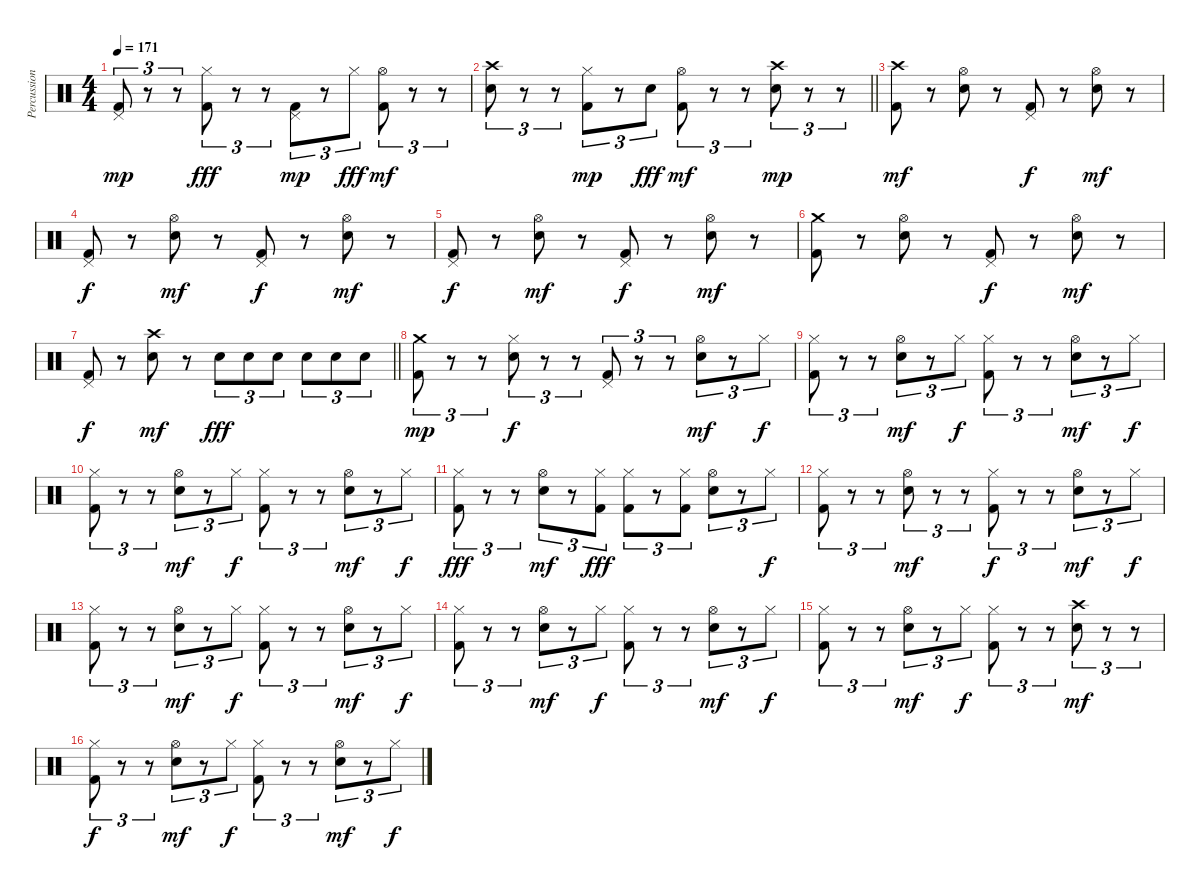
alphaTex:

\track ("Percussions" "Percussion") {instrument percussion}
\staff {score}
\articulation defaults
\ts (4 4)
\tempo 171
\clef neutral
\ks c
("Kick (hit) 2" "Pedal Hi-Hat (hit)").8{tu (3 2) dy mp} r.8{tu (3 2)} r.8{tu (3 2)} ("Kick (hit) 2" "Hi-Hat (closed)").8{tu (3 2) dy fff} r.8{tu (3 2)} r.8{tu (3 2)} ("Kick (hit) 2" "Pedal Hi-Hat (hit)").8{tu (3 2) dy mp} r.8{tu (3 2)} "Hi-Hat (closed)".8{tu (3 2) dy fff} ("Kick (hit) 2" "Hi-Hat (open)").8{tu (3 2) dy mf} r.8{tu (3 2)} r.8{tu (3 2)} |
\barLineRight lightlight
("Electric Snare (hit)" "Crash high (hit)").8{tu (3 2)} r.8{tu (3 2)} r.8{tu (3 2)} ("Kick (hit) 2" "Hi-Hat (closed)").8{tu (3 2) dy mp} r.8{tu (3 2)} "Electric Snare (hit)".8{tu (3 2) dy fff} ("Kick (hit) 2" "Hi-Hat (open)").8{tu (3 2) dy mf} r.8{tu (3 2)} r.8{tu (3 2)} ("Electric Snare (hit)" "Crash high (hit)").8{tu (3 2) dy mp} r.8{tu (3 2)} r.8{tu (3 2)} |
\section ("" "")
("Kick (hit) 2" "Crash high (hit)").8{dy mf} r.8 ("Electric Snare (hit)" "Hi-Hat (open)").8 r.8 ("Kick (hit) 2" "Pedal Hi-Hat (hit)").8{dy f} r.8 ("Electric Snare (hit)" "Hi-Hat (open)").8{dy mf} r.8 |
("Kick (hit) 2" "Pedal Hi-Hat (hit)").8{dy f} r.8 ("Electric Snare (hit)" "Hi-Hat (open)").8{dy mf} r.8 ("Kick (hit) 2" "Pedal Hi-Hat (hit)").8{dy f} r.8 ("Electric Snare (hit)" "Hi-Hat (open)").8{dy mf} r.8 |
("Kick (hit) 2" "Pedal Hi-Hat (hit)").8{dy f} r.8 ("Electric Snare (hit)" "Hi-Hat (open)").8{dy mf} r.8 ("Kick (hit) 2" "Pedal Hi-Hat (hit)").8{dy f} r.8 ("Electric Snare (hit)" "Hi-Hat (open)").8{dy mf} r.8 |
("Kick (hit) 2" "Crash medium (hit)").8 r.8 ("Electric Snare (hit)" "Hi-Hat (open)").8 r.8 ("Kick (hit) 2" "Pedal Hi-Hat (hit)").8{dy f} r.8 ("Electric Snare (hit)" "Hi-Hat (open)").8{dy mf} r.8 |
\barLineRight lightlight
("Kick (hit) 2" "Pedal Hi-Hat (hit)").8{dy f} r.8 ("Electric Snare (hit)" "Crash high (hit)").8{dy mf} r.8 "Electric Snare (hit)".8{tu (3 2) dy fff} "Electric Snare (hit)".8{tu (3 2)} "Electric Snare (hit)".8{tu (3 2)} "Electric Snare (hit)".8{tu (3 2)} "Electric Snare (hit)".8{tu (3 2)} "Electric Snare (hit)".8{tu (3 2)} |
\section ("" "")
("Kick (hit) 2" "Crash medium (hit)").8{tu (3 2) dy mp} r.8{tu (3 2)} r.8{tu (3 2)} ("Electric Snare (hit)" "Hi-Hat (closed)").8{tu (3 2) dy f} r.8{tu (3 2)} r.8{tu (3 2)} ("Kick (hit) 2" "Pedal Hi-Hat (hit)").8{tu (3 2)} r.8{tu (3 2)} r.8{tu (3 2)} ("Electric Snare (hit)" "Hi-Hat (open)").8{tu (3 2) dy mf} r.8{tu (3 2)} "Hi-Hat (closed)".8{tu (3 2) dy f} |
("Kick (hit) 2" "Hi-Hat (closed)").8{tu (3 2)} r.8{tu (3 2)} r.8{tu (3 2)} ("Electric Snare (hit)" "Hi-Hat (open)").8{tu (3 2) dy mf} r.8{tu (3 2)} "Hi-Hat (closed)".8{tu (3 2) dy f} ("Kick (hit) 2" "Hi-Hat (closed)").8{tu (3 2)} r.8{tu (3 2)} r.8{tu (3 2)} ("Electric Snare (hit)" "Hi-Hat (open)").8{tu (3 2) dy mf} r.8{tu (3 2)} "Hi-Hat (closed)".8{tu (3 2) dy f} |
("Kick (hit) 2" "Hi-Hat (closed)").8{tu (3 2)} r.8{tu (3 2)} r.8{tu (3 2)} ("Electric Snare (hit)" "Hi-Hat (open)").8{tu (3 2) dy mf} r.8{tu (3 2)} "Hi-Hat (closed)".8{tu (3 2) dy f} ("Kick (hit) 2" "Hi-Hat (closed)").8{tu (3 2)} r.8{tu (3 2)} r.8{tu (3 2)} ("Electric Snare (hit)" "Hi-Hat (open)").8{tu (3 2) dy mf} r.8{tu (3 2)} "Hi-Hat (closed)".8{tu (3 2) dy f} |
("Kick (hit) 2" "Hi-Hat (closed)").8{tu (3 2) dy fff} r.8{tu (3 2)} r.8{tu (3 2)} ("Electric Snare (hit)" "Hi-Hat (open)").8{tu (3 2) dy mf} r.8{tu (3 2)} ("Kick (hit) 2" "Hi-Hat (closed)").8{tu (3 2) dy fff} ("Kick (hit) 2" "Hi-Hat (closed)").8{tu (3 2)} r.8{tu (3 2)} ("Kick (hit) 2" "Hi-Hat (closed)").8{tu (3 2)} ("Electric Snare (hit)" "Hi-Hat (open)").8{tu (3 2)} r.8{tu (3 2)} "Hi-Hat (closed)".8{tu (3 2) dy f} |
("Kick (hit) 2" "Hi-Hat (closed)").8{tu (3 2)} r.8{tu (3 2)} r.8{tu (3 2)} ("Electric Snare (hit)" "Hi-Hat (open)").8{tu (3 2) dy mf} r.8{tu (3 2)} r.8{tu (3 2)} ("Kick (hit) 2" "Hi-Hat (closed)").8{tu (3 2) dy f} r.8{tu (3 2)} r.8{tu (3 2)} ("Electric Snare (hit)" "Hi-Hat (open)").8{tu (3 2) dy mf} r.8{tu (3 2)} "Hi-Hat (closed)".8{tu (3 2) dy f} |
("Kick (hit) 2" "Hi-Hat (closed)").8{tu (3 2)} r.8{tu (3 2)} r.8{tu (3 2)} ("Electric Snare (hit)" "Hi-Hat (open)").8{tu (3 2) dy mf} r.8{tu (3 2)} "Hi-Hat (closed)".8{tu (3 2) dy f} ("Kick (hit) 2" "Hi-Hat (closed)").8{tu (3 2)} r.8{tu (3 2)} r.8{tu (3 2)} ("Electric Snare (hit)" "Hi-Hat (open)").8{tu (3 2) dy mf} r.8{tu (3 2)} "Hi-Hat (closed)".8{tu (3 2) dy f} |
("Kick (hit) 2" "Hi-Hat (closed)").8{tu (3 2)} r.8{tu (3 2)} r.8{tu (3 2)} ("Electric Snare (hit)" "Hi-Hat (open)").8{tu (3 2) dy mf} r.8{tu (3 2)} "Hi-Hat (closed)".8{tu (3 2) dy f} ("Kick (hit) 2" "Hi-Hat (closed)").8{tu (3 2)} r.8{tu (3 2)} r.8{tu (3 2)} ("Electric Snare (hit)" "Hi-Hat (open)").8{tu (3 2) dy mf} r.8{tu (3 2)} "Hi-Hat (closed)".8{tu (3 2) dy f} |
("Kick (hit) 2" "Hi-Hat (closed)").8{tu (3 2)} r.8{tu (3 2)} r.8{tu (3 2)} ("Electric Snare (hit)" "Hi-Hat (open)").8{tu (3 2) dy mf} r.8{tu (3 2)} "Hi-Hat (closed)".8{tu (3 2) dy f} ("Kick (hit) 2" "Hi-Hat (closed)").8{tu (3 2)} r.8{tu (3 2)} r.8{tu (3 2)} ("Electric Snare (hit)" "Crash high (hit)").8{tu (3 2) dy mf} r.8{tu (3 2)} r.8{tu (3 2)} |
("Kick (hit) 2" "Hi-Hat (closed)").8{tu (3 2) dy f} r.8{tu (3 2)} r.8{tu (3 2)} ("Electric Snare (hit)" "Hi-Hat (open)").8{tu (3 2) dy mf} r.8{tu (3 2)} "Hi-Hat (closed)".8{tu (3 2) dy f} ("Kick (hit) 2" "Hi-Hat (closed)").8{tu (3 2)} r.8{tu (3 2)} r.8{tu (3 2)} ("Electric Snare (hit)" "Hi-Hat (open)").8{tu (3 2) dy mf} r.8{tu (3 2)} "Hi-Hat (closed)".8{tu (3 2) dy f}
